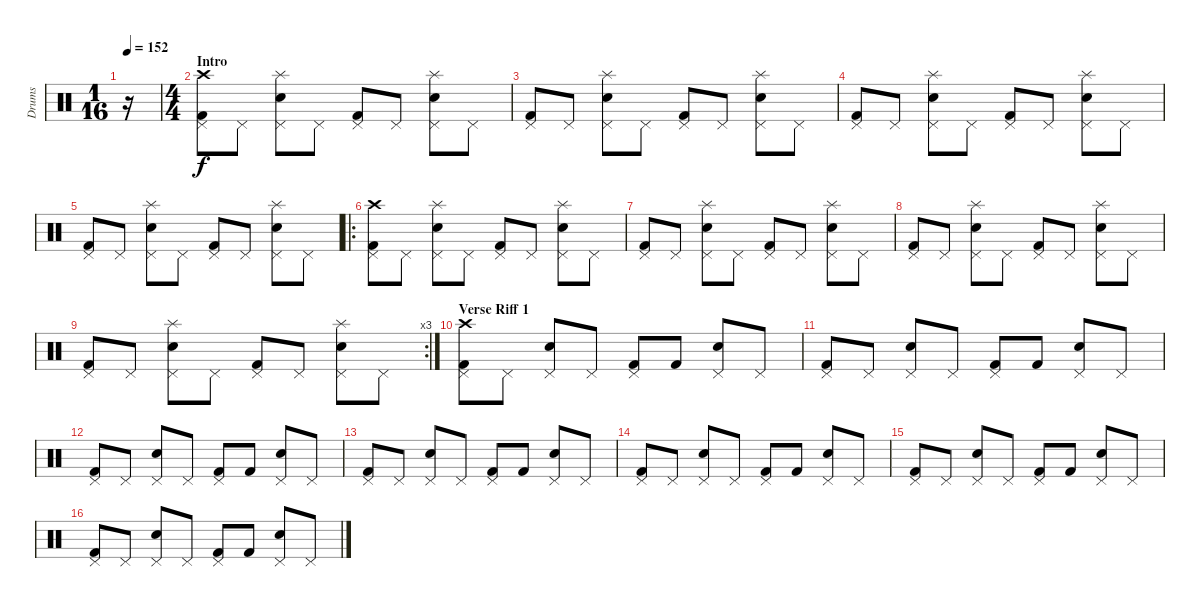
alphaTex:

\track ("Drums" "Drums") {instrument percussion}
\staff {score}
\articulation defaults
\ts (1 16)
\tempo 152
\clef neutral
\ks c
r.16{dy f} |
\ts (4 4)
\section ("" "Intro")
("Kick (hit) 2" "Pedal Hi-Hat (hit)" "Crash high (hit)").8 "Pedal Hi-Hat (hit)".8 ("Snare (hit) 2" "Pedal Hi-Hat (hit)" "Splash (hit)").8 "Pedal Hi-Hat (hit)".8 ("Kick (hit) 2" "Pedal Hi-Hat (hit)").8 "Pedal Hi-Hat (hit)".8 ("Snare (hit) 2" "Pedal Hi-Hat (hit)" "Splash (hit)").8 "Pedal Hi-Hat (hit)".8 |
("Kick (hit) 2" "Pedal Hi-Hat (hit)").8 "Pedal Hi-Hat (hit)".8 ("Snare (hit) 2" "Pedal Hi-Hat (hit)" "Splash (hit)").8 "Pedal Hi-Hat (hit)".8 ("Kick (hit) 2" "Pedal Hi-Hat (hit)").8 "Pedal Hi-Hat (hit)".8 ("Snare (hit) 2" "Pedal Hi-Hat (hit)" "Splash (hit)").8 "Pedal Hi-Hat (hit)".8 |
("Kick (hit) 2" "Pedal Hi-Hat (hit)").8 "Pedal Hi-Hat (hit)".8 ("Snare (hit) 2" "Pedal Hi-Hat (hit)" "Splash (hit)").8 "Pedal Hi-Hat (hit)".8 ("Kick (hit) 2" "Pedal Hi-Hat (hit)").8 "Pedal Hi-Hat (hit)".8 ("Snare (hit) 2" "Pedal Hi-Hat (hit)" "Splash (hit)").8 "Pedal Hi-Hat (hit)".8 |
("Kick (hit) 2" "Pedal Hi-Hat (hit)").8 "Pedal Hi-Hat (hit)".8 ("Snare (hit) 2" "Pedal Hi-Hat (hit)" "Splash (hit)").8 "Pedal Hi-Hat (hit)".8 ("Kick (hit) 2" "Pedal Hi-Hat (hit)").8 "Pedal Hi-Hat (hit)".8 ("Snare (hit) 2" "Pedal Hi-Hat (hit)" "Splash (hit)").8 "Pedal Hi-Hat (hit)".8 |
\ro
("Kick (hit) 2" "Pedal Hi-Hat (hit)" "Crash high (hit)").8 "Pedal Hi-Hat (hit)".8 ("Snare (hit) 2" "Pedal Hi-Hat (hit)" "Splash (hit)").8 "Pedal Hi-Hat (hit)".8 ("Kick (hit) 2" "Pedal Hi-Hat (hit)").8 "Pedal Hi-Hat (hit)".8 ("Snare (hit) 2" "Pedal Hi-Hat (hit)" "Splash (hit)").8 "Pedal Hi-Hat (hit)".8 |
("Kick (hit) 2" "Pedal Hi-Hat (hit)").8 "Pedal Hi-Hat (hit)".8 ("Snare (hit) 2" "Pedal Hi-Hat (hit)" "Splash (hit)").8 "Pedal Hi-Hat (hit)".8 ("Kick (hit) 2" "Pedal Hi-Hat (hit)").8 "Pedal Hi-Hat (hit)".8 ("Snare (hit) 2" "Pedal Hi-Hat (hit)" "Splash (hit)").8 "Pedal Hi-Hat (hit)".8 |
("Kick (hit) 2" "Pedal Hi-Hat (hit)").8 "Pedal Hi-Hat (hit)".8 ("Snare (hit) 2" "Pedal Hi-Hat (hit)" "Splash (hit)").8 "Pedal Hi-Hat (hit)".8 ("Kick (hit) 2" "Pedal Hi-Hat (hit)").8 "Pedal Hi-Hat (hit)".8 ("Snare (hit) 2" "Pedal Hi-Hat (hit)" "Splash (hit)").8 "Pedal Hi-Hat (hit)".8 |
\rc 3
("Kick (hit) 2" "Pedal Hi-Hat (hit)").8 "Pedal Hi-Hat (hit)".8 ("Snare (hit) 2" "Pedal Hi-Hat (hit)" "Splash (hit)").8 "Pedal Hi-Hat (hit)".8 ("Kick (hit) 2" "Pedal Hi-Hat (hit)").8 "Pedal Hi-Hat (hit)".8 ("Snare (hit) 2" "Pedal Hi-Hat (hit)" "Splash (hit)").8 "Pedal Hi-Hat (hit)".8 |
\section ("" "Verse Riff 1")
("Kick (hit) 2" "Pedal Hi-Hat (hit)" "Crash high (hit)").8 "Pedal Hi-Hat (hit)".8 ("Snare (hit) 2" "Pedal Hi-Hat (hit)").8 "Pedal Hi-Hat (hit)".8 ("Kick (hit) 2" "Pedal Hi-Hat (hit)").8 "Kick (hit) 2".8 ("Snare (hit) 2" "Pedal Hi-Hat (hit)").8 "Pedal Hi-Hat (hit)".8 |
("Kick (hit) 2" "Pedal Hi-Hat (hit)").8 "Pedal Hi-Hat (hit)".8 ("Snare (hit) 2" "Pedal Hi-Hat (hit)").8 "Pedal Hi-Hat (hit)".8 ("Kick (hit) 2" "Pedal Hi-Hat (hit)").8 "Kick (hit) 2".8 ("Snare (hit) 2" "Pedal Hi-Hat (hit)").8 "Pedal Hi-Hat (hit)".8 |
("Kick (hit) 2" "Pedal Hi-Hat (hit)").8 "Pedal Hi-Hat (hit)".8 ("Snare (hit) 2" "Pedal Hi-Hat (hit)").8 "Pedal Hi-Hat (hit)".8 ("Kick (hit) 2" "Pedal Hi-Hat (hit)").8 "Kick (hit) 2".8 ("Snare (hit) 2" "Pedal Hi-Hat (hit)").8 "Pedal Hi-Hat (hit)".8 |
("Kick (hit) 2" "Pedal Hi-Hat (hit)").8 "Pedal Hi-Hat (hit)".8 ("Snare (hit) 2" "Pedal Hi-Hat (hit)").8 "Pedal Hi-Hat (hit)".8 ("Kick (hit) 2" "Pedal Hi-Hat (hit)").8 "Kick (hit) 2".8 ("Snare (hit) 2" "Pedal Hi-Hat (hit)").8 "Pedal Hi-Hat (hit)".8 |
("Kick (hit) 2" "Pedal Hi-Hat (hit)").8 "Pedal Hi-Hat (hit)".8 ("Snare (hit) 2" "Pedal Hi-Hat (hit)").8 "Pedal Hi-Hat (hit)".8 ("Kick (hit) 2" "Pedal Hi-Hat (hit)").8 "Kick (hit) 2".8 ("Snare (hit) 2" "Pedal Hi-Hat (hit)").8 "Pedal Hi-Hat (hit)".8 |
("Kick (hit) 2" "Pedal Hi-Hat (hit)").8 "Pedal Hi-Hat (hit)".8 ("Snare (hit) 2" "Pedal Hi-Hat (hit)").8 "Pedal Hi-Hat (hit)".8 ("Kick (hit) 2" "Pedal Hi-Hat (hit)").8 "Kick (hit) 2".8 ("Snare (hit) 2" "Pedal Hi-Hat (hit)").8 "Pedal Hi-Hat (hit)".8 |
("Kick (hit) 2" "Pedal Hi-Hat (hit)").8 "Pedal Hi-Hat (hit)".8 ("Snare (hit) 2" "Pedal Hi-Hat (hit)").8 "Pedal Hi-Hat (hit)".8 ("Kick (hit) 2" "Pedal Hi-Hat (hit)").8 "Kick (hit) 2".8 ("Snare (hit) 2" "Pedal Hi-Hat (hit)").8 "Pedal Hi-Hat (hit)".8
